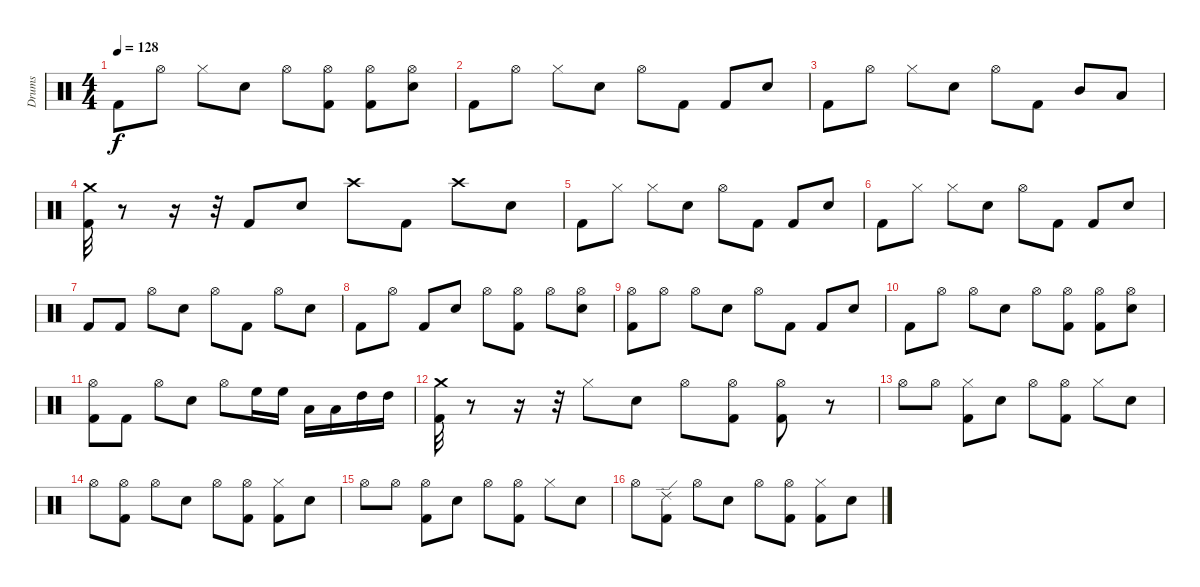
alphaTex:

\track ("Drums" "Drums") {instrument percussion}
\staff {score}
\articulation defaults
\ts (4 4)
\tempo 128
\clef neutral
\ks c "Kick (hit) 2".8{dy f} "Hi-Hat (open)".8 "Hi-Hat (closed)".8 "Snare (hit) 2".8 "Hi-Hat (open)".8
("Hi-Hat (open)" "Kick (hit) 2").8 ("Hi-Hat (open)" "Kick (hit) 2").8 ("Hi-Hat (open)" "Snare (hit) 2").8 |
"Kick (hit) 2".8 "Hi-Hat (open)".8 "Hi-Hat (closed)".8 "Snare (hit) 2".8 "Hi-Hat (open)".8 "Kick (hit) 2".8 "Kick (hit) 2".8 "Snare (hit) 2".8 |
"Kick (hit) 2".8 "Hi-Hat (open)".8 "Hi-Hat (closed)".8 "Snare (hit) 2".8 "Hi-Hat (open)".8 "Kick (hit) 2".8 "Mid Tom (hit)".8 "Low Tom (hit)".8 |
("Crash medium (hit)" "Kick (hit) 2").32 r.8 r.16 r.32 "Kick (hit) 2".8 "Snare (hit) 2".8 "Crash high (hit)".8 "Kick (hit) 2".8 "Crash high (hit)".8 "Snare (hit) 2".8 |
"Kick (hit) 2".8 "Hi-Hat (closed)".8 "Hi-Hat (closed)".8 "Snare (hit) 2".8 "Hi-Hat (open)".8 "Kick (hit) 2".8 "Kick (hit) 2".8 "Snare (hit) 2".8 |
"Kick (hit) 2".8 "Hi-Hat (closed)".8 "Hi-Hat (closed)".8 "Snare (hit) 2".8 "Hi-Hat (open)".8 "Kick (hit) 2".8 "Kick (hit) 2".8 "Snare (hit) 2".8 |
"Kick (hit) 2".8 "Kick (hit) 2".8 "Hi-Hat (open)".8 "Snare (hit) 2".8 "Hi-Hat (open)".8 "Kick (hit) 2".8 "Hi-Hat (open)".8 "Snare (hit) 2".8 |
"Kick (hit) 2".8 "Hi-Hat (open)".8 "Kick (hit) 2".8 "Snare (hit) 2".8 "Hi-Hat (open)".8 ("Hi-Hat (open)" "Kick (hit) 2").8 "Hi-Hat (open)".8 ("Hi-Hat (open)" "Snare (hit) 2").8 |
("Hi-Hat (open)" "Kick (hit) 2").8 "Hi-Hat (open)".8 "Hi-Hat (open)".8 "Snare (hit) 2".8 "Hi-Hat (open)".8 "Kick (hit) 2".8 "Kick (hit) 2".8 "Snare (hit) 2".8 |
"Kick (hit) 2".8 "Hi-Hat (open)".8 "Hi-Hat (open)".8 "Snare (hit) 2".8 "Hi-Hat (open)".8 ("Hi-Hat (open)" "Kick (hit) 2").8 ("Hi-Hat (open)" "Kick (hit) 2").8 ("Hi-Hat (open)" "Snare (hit) 2").8 |
("Hi-Hat (open)" "Kick (hit) 2").8 "Kick (hit) 2".8 "Hi-Hat (open)".8 "Snare (hit) 2".8 "Hi-Hat (open)".8 "High Floor Tom (hit)".16 "High Floor Tom (hit)".16 "Low Tom (hit)".16 "Low Tom (hit)".16 "High Tom (hit)".16 "High Tom (hit)".16 |
("Crash medium (hit)" "Kick (hit) 2").32 r.8 r.16 r.32 "Hi-Hat (closed)".8 "Snare (hit) 2".8 "Hi-Hat (open)".8 ("Hi-Hat (open)" "Kick (hit) 2").8 ("Hi-Hat (open)" "Kick (hit) 2").8 r.8 |
"Hi-Hat (open)".8 "Hi-Hat (open)".8 ("Hi-Hat (closed)" "Kick (hit) 2").8 "Snare (hit) 2".8 "Hi-Hat (open)".8 ("Hi-Hat (open)" "Kick (hit) 2").8 "Hi-Hat (closed)".8 "Snare (hit) 2".8 |
"Hi-Hat (open)".8 ("Hi-Hat (open)" "Kick (hit) 2").8 "Hi-Hat (open)".8 "Snare (hit) 2".8 "Hi-Hat (open)".8 ("Hi-Hat (open)" "Kick (hit) 2").8 ("Hi-Hat (closed)" "Kick (hit) 2").8 "Snare (hit) 2".8 |
"Hi-Hat (open)".8 "Hi-Hat (open)".8 ("Hi-Hat (open)" "Kick (hit) 2").8 "Snare (hit) 2".8 "Hi-Hat (open)".8 ("Hi-Hat (open)" "Kick (hit) 2").8 "Hi-Hat (closed)".8 "Snare (hit) 2".8 |
"Hi-Hat (open)".8 ("Ride (edge) 2" "Kick (hit) 2").8 "Hi-Hat (open)".8 "Snare (hit) 2".8 "Hi-Hat (open)".8 ("Hi-Hat (open)" "Kick (hit) 2").8 ("Hi-Hat (closed)" "Kick (hit) 2").8 "Snare (hit) 2".8
